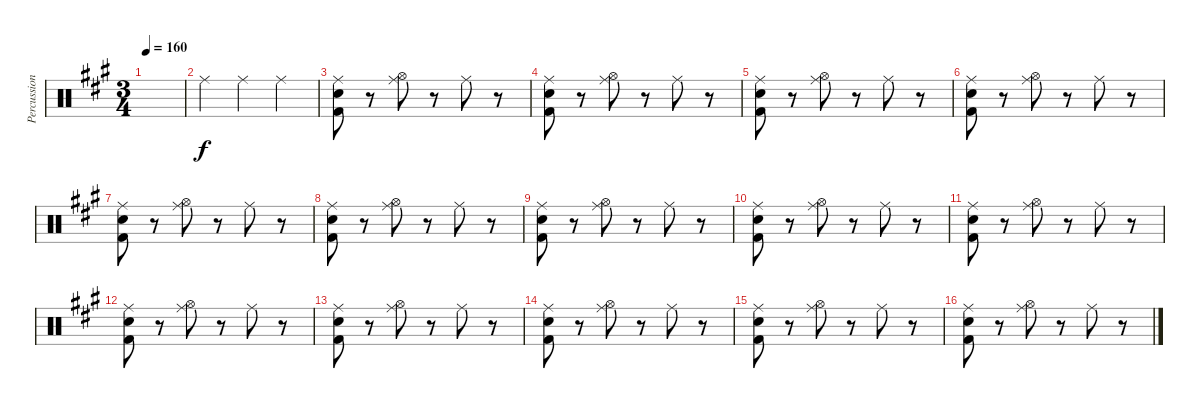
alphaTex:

\track ("Percussioni" "Percussion") {instrument percussion}
\staff {score}
\articulation defaults
\ts (3 4)
\tempo 160
\clef neutral
\ks a
|
"Ride (middle)".4 "Ride (middle)".4 "Ride (middle)".4 |
("Electric Snare (hit)" "Ride (middle)" "Kick (hit) 2").8 r.8 ("Hi-Hat (open)" "Ride (middle)").8 r.8 "Ride (middle)".8 r.8 |
("Electric Snare (hit)" "Ride (middle)" "Kick (hit) 2").8 r.8 ("Hi-Hat (open)" "Ride (middle)").8 r.8 "Ride (middle)".8 r.8 |
("Electric Snare (hit)" "Ride (middle)" "Kick (hit) 2").8 r.8 ("Hi-Hat (open)" "Ride (middle)").8 r.8 "Ride (middle)".8 r.8 |
("Electric Snare (hit)" "Ride (middle)" "Kick (hit) 2").8 r.8 ("Hi-Hat (open)" "Ride (middle)").8 r.8 "Ride (middle)".8 r.8 |
("Electric Snare (hit)" "Ride (middle)" "Kick (hit) 2").8 r.8 ("Hi-Hat (open)" "Ride (middle)").8 r.8 "Ride (middle)".8 r.8 |
("Electric Snare (hit)" "Ride (middle)" "Kick (hit) 2").8 r.8 ("Hi-Hat (open)" "Ride (middle)").8 r.8 "Ride (middle)".8 r.8 |
("Electric Snare (hit)" "Ride (middle)" "Kick (hit) 2").8 r.8 ("Hi-Hat (open)" "Ride (middle)").8 r.8 "Ride (middle)".8 r.8 |
("Electric Snare (hit)" "Ride (middle)" "Kick (hit) 2").8 r.8 ("Hi-Hat (open)" "Ride (middle)").8 r.8 "Ride (middle)".8 r.8 |
("Electric Snare (hit)" "Ride (middle)" "Kick (hit) 2").8 r.8 ("Hi-Hat (open)" "Ride (middle)").8 r.8 "Ride (middle)".8 r.8 |
("Electric Snare (hit)" "Ride (middle)" "Kick (hit) 2").8 r.8 ("Hi-Hat (open)" "Ride (middle)").8 r.8 "Ride (middle)".8 r.8 |
("Electric Snare (hit)" "Ride (middle)" "Kick (hit) 2").8 r.8 ("Hi-Hat (open)" "Ride (middle)").8 r.8 "Ride (middle)".8 r.8 |
("Electric Snare (hit)" "Ride (middle)" "Kick (hit) 2").8 r.8 ("Hi-Hat (open)" "Ride (middle)").8 r.8 "Ride (middle)".8 r.8 |
("Electric Snare (hit)" "Ride (middle)" "Kick (hit) 2").8 r.8 ("Hi-Hat (open)" "Ride (middle)").8 r.8 "Ride (middle)".8 r.8 |
("Electric Snare (hit)" "Ride (middle)" "Kick (hit) 2").8 r.8 ("Hi-Hat (open)" "Ride (middle)").8 r.8 "Ride (middle)".8 r.8
